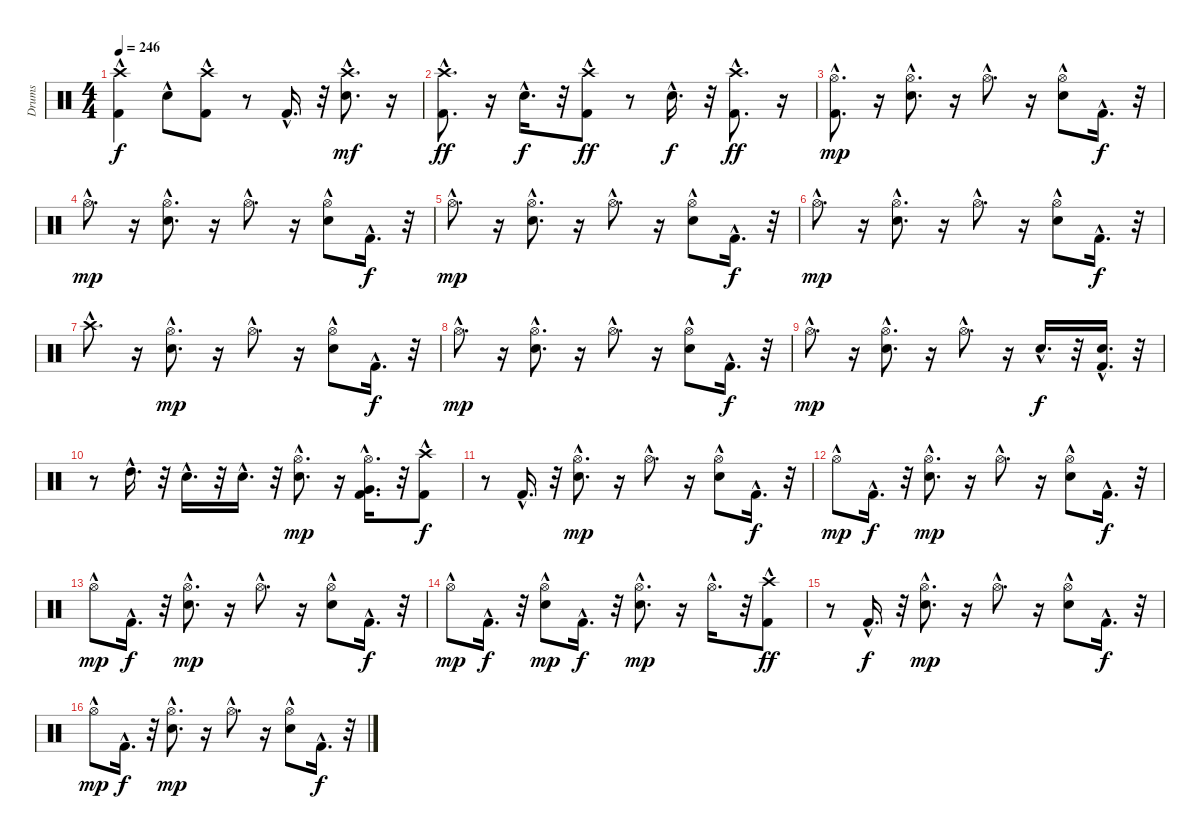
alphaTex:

\track ("Drums" "Drums") {instrument percussion}
\staff {score}
\articulation defaults
\ts (4 4)
\tempo 246
\clef neutral
\ks c
("Kick (hit) 2"{hac} "Crash high (hit)").4{dy f} "Electric Snare (hit)"{hac}.8 ("Kick (hit) 2"{hac} "Crash high (hit)").8 r.8 "Kick (hit) 2"{hac}.16{d} r.32 ("Crash high (hit)"{hac} "Electric Snare (hit)"{hac}).8{d dy mf} r.16 |
("Kick (hit) 2"{hac} "Crash high (hit)"{hac}).8{d dy ff} r.16 "Electric Snare (hit)"{hac}.16{d dy f} r.32 ("Kick (hit) 2"{hac} "Crash high (hit)").8{dy ff} r.8 "Electric Snare (hit)"{hac}.16{d dy f} r.32 ("Kick (hit) 2"{hac} "Crash high (hit)"{hac}).8{d dy ff} r.16 |
("Kick (hit) 2"{hac} "Hi-Hat (open)"{hac}).8{d dy mp} r.16 ("Electric Snare (hit)"{hac} "Hi-Hat (open)"{hac}).8{d} r.16 "Hi-Hat (open)"{hac}.8{d} r.16 ("Hi-Hat (open)"{hac} "Electric Snare (hit)"{hac}).8 "Kick (hit) 2"{hac}.16{d dy f} r.32 |
"Hi-Hat (open)"{hac}.8{d dy mp} r.16 ("Hi-Hat (open)"{hac} "Electric Snare (hit)"{hac}).8{d} r.16 "Hi-Hat (open)"{hac}.8{d} r.16 ("Hi-Hat (open)"{hac} "Electric Snare (hit)"{hac}).8 "Kick (hit) 2"{hac}.16{d dy f} r.32 |
"Hi-Hat (open)"{hac}.8{d dy mp} r.16 ("Hi-Hat (open)"{hac} "Electric Snare (hit)"{hac}).8{d} r.16 "Hi-Hat (open)"{hac}.8{d} r.16 ("Hi-Hat (open)"{hac} "Electric Snare (hit)"{hac}).8 "Kick (hit) 2"{hac}.16{d dy f} r.32 |
"Hi-Hat (open)"{hac}.8{d dy mp} r.16 ("Hi-Hat (open)"{hac} "Electric Snare (hit)"{hac}).8{d} r.16 "Hi-Hat (open)"{hac}.8{d} r.16 ("Hi-Hat (open)"{hac} "Electric Snare (hit)"{hac}).8 "Kick (hit) 2"{hac}.16{d dy f} r.32 |
"Crash high (hit)"{hac}.8{d} r.16 ("Electric Snare (hit)"{hac} "Hi-Hat (open)"{hac}).8{d dy mp} r.16 "Hi-Hat (open)"{hac}.8{d} r.16 ("Hi-Hat (open)"{hac} "Electric Snare (hit)"{hac}).8 "Kick (hit) 2"{hac}.16{d dy f} r.32 |
"Hi-Hat (open)"{hac}.8{d dy mp} r.16 ("Hi-Hat (open)"{hac} "Electric Snare (hit)"{hac}).8{d} r.16 "Hi-Hat (open)"{hac}.8{d} r.16 ("Hi-Hat (open)"{hac} "Electric Snare (hit)"{hac}).8 "Kick (hit) 2"{hac}.16{d dy f} r.32 |
"Hi-Hat (open)"{hac}.8{d dy mp} r.16 ("Hi-Hat (open)"{hac} "Electric Snare (hit)"{hac}).8{d} r.16 "Hi-Hat (open)"{hac}.8{d} r.16 "Electric Snare (hit)"{hac}.16{d dy f} r.32 ("Kick (hit) 2"{hac} "Electric Snare (hit)"{hac}).16{d} r.32 |
r.8 "High Tom (hit)"{hac}.16{d} r.32 "Electric Snare (hit)"{hac}.16{d} r.32 "Electric Snare (hit)"{hac}.16{d} r.32 ("Hi-Hat (open)"{hac} "Electric Snare (hit)"{hac}).8{d dy mp} r.16 ("Hi-Hat (open)"{hac} "Kick (hit) 2"{hac} "Very Low Tom (hit)"{hac}).16{d} r.32 ("Kick (hit) 2"{hac} "Crash high (hit)").8{dy f} |
r.8 "Kick (hit) 2"{hac}.16{d} r.32 ("Electric Snare (hit)"{hac} "Hi-Hat (open)"{hac}).8{d dy mp} r.16 "Hi-Hat (open)"{hac}.8{d} r.16 ("Electric Snare (hit)"{hac} "Hi-Hat (open)"{hac}).8 "Kick (hit) 2"{hac}.16{d dy f} r.32 |
"Hi-Hat (open)"{hac}.8{dy mp} "Kick (hit) 2"{hac}.16{d dy f} r.32 ("Electric Snare (hit)"{hac} "Hi-Hat (open)"{hac}).8{d dy mp} r.16 "Hi-Hat (open)"{hac}.8{d} r.16 ("Electric Snare (hit)"{hac} "Hi-Hat (open)"{hac}).8 "Kick (hit) 2"{hac}.16{d dy f} r.32 |
"Hi-Hat (open)"{hac}.8{dy mp} "Kick (hit) 2"{hac}.16{d dy f} r.32 ("Electric Snare (hit)"{hac} "Hi-Hat (open)"{hac}).8{d dy mp} r.16 "Hi-Hat (open)"{hac}.8{d} r.16 ("Electric Snare (hit)"{hac} "Hi-Hat (open)"{hac}).8 "Kick (hit) 2"{hac}.16{d dy f} r.32 |
"Hi-Hat (open)"{hac}.8{dy mp} "Kick (hit) 2"{hac}.16{d dy f} r.32 ("Electric Snare (hit)"{hac} "Hi-Hat (open)"{hac}).8{dy mp} "Kick (hit) 2"{hac}.16{d dy f} r.32 ("Electric Snare (hit)"{hac} "Hi-Hat (open)"{hac}).8{d dy mp} r.16 "Hi-Hat (open)"{hac}.16{d} r.32 ("Crash high (hit)" "Kick (hit) 2"{hac}).8{dy ff} |
r.8 "Kick (hit) 2"{hac}.16{d dy f} r.32 ("Electric Snare (hit)"{hac} "Hi-Hat (open)"{hac}).8{d dy mp} r.16 "Hi-Hat (open)"{hac}.8{d} r.16 ("Electric Snare (hit)"{hac} "Hi-Hat (open)"{hac}).8 "Kick (hit) 2"{hac}.16{d dy f} r.32 |
"Hi-Hat (open)"{hac}.8{dy mp} "Kick (hit) 2"{hac}.16{d dy f} r.32 ("Electric Snare (hit)"{hac} "Hi-Hat (open)"{hac}).8{d dy mp} r.16 "Hi-Hat (open)"{hac}.8{d} r.16 ("Electric Snare (hit)"{hac} "Hi-Hat (open)"{hac}).8 "Kick (hit) 2"{hac}.16{d dy f} r.32
